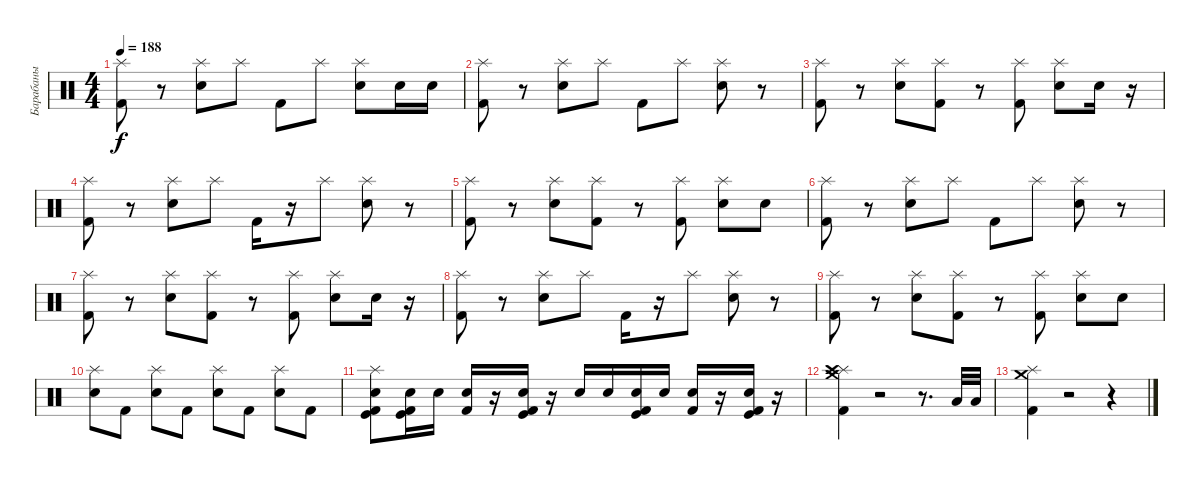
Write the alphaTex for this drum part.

\track ("Барабаны" "Барабаны") {instrument percussion}
\staff {score}
\articulation defaults
\ts (4 4)
\tempo 188
\clef neutral
\ks c
("Splash (hit)" "Kick (hit) 2").8{dy f} r.8 ("Splash (hit)" "Electric Snare (hit)").8 "Splash (hit)".8 "Kick (hit) 2".8 "Splash (hit)".8 ("Splash (hit)" "Electric Snare (hit)").8 "Electric Snare (hit)".16 "Electric Snare (hit)".16 |
("Splash (hit)" "Kick (hit) 2").8 r.8 ("Splash (hit)" "Electric Snare (hit)").8 "Splash (hit)".8 "Kick (hit) 2".8 "Splash (hit)".8 ("Splash (hit)" "Electric Snare (hit)").8 r.8 |
("Splash (hit)" "Kick (hit) 2").8 r.8 ("Splash (hit)" "Electric Snare (hit)").8 ("Splash (hit)" "Kick (hit) 2").8 r.8 ("Splash (hit)" "Kick (hit) 2").8 ("Splash (hit)" "Electric Snare (hit)").8 "Electric Snare (hit)".16 r.16 |
("Splash (hit)" "Kick (hit) 2").8 r.8 ("Splash (hit)" "Electric Snare (hit)").8 "Splash (hit)".8 "Kick (hit) 2".16 r.16 "Splash (hit)".8 ("Splash (hit)" "Electric Snare (hit)").8 r.8 |
("Splash (hit)" "Kick (hit) 2").8 r.8 ("Splash (hit)" "Electric Snare (hit)").8 ("Splash (hit)" "Kick (hit) 2").8 r.8 ("Splash (hit)" "Kick (hit) 2").8 ("Splash (hit)" "Electric Snare (hit)").8 "Electric Snare (hit)".8 |
("Splash (hit)" "Kick (hit) 2").8 r.8 ("Splash (hit)" "Electric Snare (hit)").8 "Splash (hit)".8 "Kick (hit) 2".8 "Splash (hit)".8 ("Splash (hit)" "Electric Snare (hit)").8 r.8 |
("Splash (hit)" "Kick (hit) 2").8 r.8 ("Splash (hit)" "Electric Snare (hit)").8 ("Splash (hit)" "Kick (hit) 2").8 r.8 ("Splash (hit)" "Kick (hit) 2").8 ("Splash (hit)" "Electric Snare (hit)").8 "Electric Snare (hit)".16 r.16 |
("Splash (hit)" "Kick (hit) 2").8 r.8 ("Splash (hit)" "Electric Snare (hit)").8 "Splash (hit)".8 "Kick (hit) 2".16 r.16 "Splash (hit)".8 ("Splash (hit)" "Electric Snare (hit)").8 r.8 |
("Splash (hit)" "Kick (hit) 2").8 r.8 ("Splash (hit)" "Electric Snare (hit)").8 ("Splash (hit)" "Kick (hit) 2").8 r.8 ("Splash (hit)" "Kick (hit) 2").8 ("Splash (hit)" "Electric Snare (hit)").8 "Electric Snare (hit)".8 |
("Splash (hit)" "Electric Snare (hit)").8 "Kick (hit) 2".8 ("Splash (hit)" "Electric Snare (hit)").8 "Kick (hit) 2".8 ("Splash (hit)" "Electric Snare (hit)").8 "Kick (hit) 2".8 ("Splash (hit)" "Electric Snare (hit)").8 "Kick (hit) 2".8 |
("Splash (hit)" "Electric Snare (hit)" "Kick (hit)" "Kick (hit) 2").8 ("Kick (hit) 2" "Kick (hit)" "Electric Snare (hit)").16 "Electric Snare (hit)".16 ("Kick (hit) 2" "Electric Snare (hit)").16 r.16 ("Kick (hit) 2" "Kick (hit)" "Electric Snare (hit)").16 r.16 "Electric Snare (hit)".16 "Electric Snare (hit)".16 ("Kick (hit) 2" "Kick (hit)" "Electric Snare (hit)").16 "Electric Snare (hit)".16 ("Kick (hit) 2" "Electric Snare (hit)").16 r.16 ("Kick (hit) 2" "Kick (hit)" "Electric Snare (hit)").16 r.16 |
("Kick (hit) 2" "Splash (hit)" "Crash medium (hit)" "Crash high (hit)").4 r.2 r.8{d} "Low Tom (hit)".32 "Low Tom (hit)".32 |
("Crash medium (hit)" "Splash (hit)" "Kick (hit) 2").4 r.2 r.4
